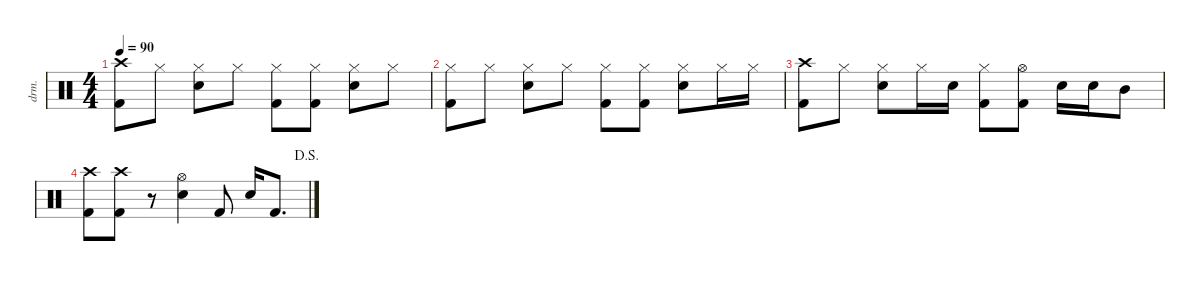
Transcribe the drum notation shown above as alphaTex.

\defaultSystemsLayout 4
\hideDynamics
\bracketExtendMode nobrackets
\otherSystemsTrackNameOrientation horizontal
\track ("Drumkit" "drm.") {instrument percussion}
\staff {score}
\articulation defaults
\ts (4 4)
\tempo 90
\clef neutral
\ks c
("Crash high (hit)" "Kick (hit) 2").8{dy mf beam Down} "Hi-Hat (closed)".8{beam Down} ("Hi-Hat (closed)" "Snare (hit) 2").8{beam Down} "Hi-Hat (closed)".8{beam Down} ("Hi-Hat (closed)" "Kick (hit) 2").8{beam Down} ("Hi-Hat (closed)" "Kick (hit) 2").8{beam Down} ("Hi-Hat (closed)" "Snare (hit) 2").8{beam Down} "Hi-Hat (closed)".8{beam Down} |
("Hi-Hat (closed)" "Kick (hit) 2").8{beam Down} "Hi-Hat (closed)".8{beam Down} ("Hi-Hat (closed)" "Snare (hit) 2").8{beam Down} "Hi-Hat (closed)".8{beam Down} ("Hi-Hat (closed)" "Kick (hit) 2").8{beam Down} ("Hi-Hat (closed)" "Kick (hit) 2").8{beam Down} ("Hi-Hat (closed)" "Snare (hit) 2").8{beam Down} "Hi-Hat (closed)".16{beam Down} "Hi-Hat (closed)".16{beam Down} |
("Crash high (hit)" "Kick (hit) 2").8{beam Down} "Hi-Hat (closed)".8{beam Down} ("Hi-Hat (closed)" "Snare (hit) 2").8{beam Down} "Hi-Hat (closed)".16{beam Down} "Snare (hit) 2".16{beam Down} ("Kick (hit) 2" "Hi-Hat (closed)").8{beam Down} ("Kick (hit) 2" "Hi-Hat (open)").8{beam Down} "Snare (hit) 2".16{beam Down} "Snare (hit) 2".16{beam Down} "Mid Tom (hit)".8{beam Down} |
\jump dalsegno
("Kick (hit) 2" "Crash high (hit)").8{beam Down} ("Crash high (hit)" "Kick (hit) 2").8{beam Down} r.8{beam Down} ("Snare (hit) 2" "Hi-Hat (open)").4{beam Down} "Kick (hit) 2".8{beam Up} "Snare (hit) 2".16{beam Up} "Kick (hit) 2".8{d beam Up}
